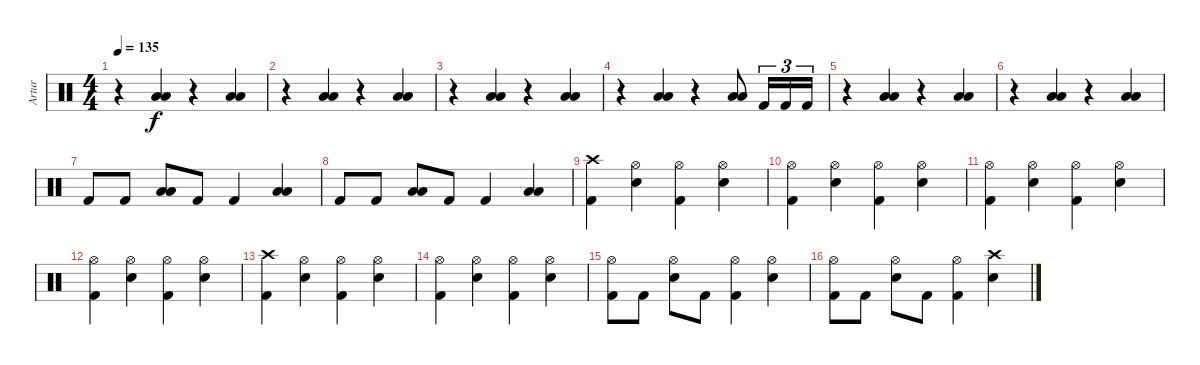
\track ("Artur" "Artur") {instrument percussion}
\staff {score}
\articulation defaults
\ts (4 4)
\tempo 135
\clef neutral
\ks c
r.4{dy f} ("Low Tom (hit)" "Low Floor Tom (hit)").4 r.4 ("Low Tom (hit)" "Low Floor Tom (hit)").4 |
r.4 ("Low Tom (hit)" "Low Floor Tom (hit)").4 r.4 ("Low Tom (hit)" "Low Floor Tom (hit)").4 |
r.4 ("Low Tom (hit)" "Low Floor Tom (hit)").4 r.4 ("Low Tom (hit)" "Low Floor Tom (hit)").4 |
r.4 ("Low Tom (hit)" "Low Floor Tom (hit)").4 r.4 ("Low Tom (hit)" "Low Floor Tom (hit)").8 "Kick (hit) 2".16{tu (3 2)} "Kick (hit) 2".16{tu (3 2)} "Kick (hit) 2".16{tu (3 2)} |
r.4 ("Low Tom (hit)" "Low Floor Tom (hit)").4 r.4 ("Low Tom (hit)" "Low Floor Tom (hit)").4 |
r.4 ("Low Tom (hit)" "Low Floor Tom (hit)").4 r.4 ("Low Tom (hit)" "Low Floor Tom (hit)").4 |
"Kick (hit) 2".8 "Kick (hit) 2".8 ("Low Tom (hit)" "Low Floor Tom (hit)").8 "Kick (hit) 2".8 "Kick (hit) 2".4 ("Low Tom (hit)" "Low Floor Tom (hit)").4 |
"Kick (hit) 2".8 "Kick (hit) 2".8 ("Low Tom (hit)" "Low Floor Tom (hit)").8 "Kick (hit) 2".8 "Kick (hit) 2".4 ("Low Tom (hit)" "Low Floor Tom (hit)").4 |
("Crash high (hit)" "Kick (hit) 2").4 ("Hi-Hat (open)" "Electric Snare (hit)").4 ("Hi-Hat (open)" "Kick (hit) 2").4 ("Hi-Hat (open)" "Electric Snare (hit)").4 |
("Hi-Hat (open)" "Kick (hit) 2").4 ("Hi-Hat (open)" "Electric Snare (hit)").4 ("Hi-Hat (open)" "Kick (hit) 2").4 ("Hi-Hat (open)" "Electric Snare (hit)").4 |
("Hi-Hat (open)" "Kick (hit) 2").4 ("Hi-Hat (open)" "Electric Snare (hit)").4 ("Hi-Hat (open)" "Kick (hit) 2").4 ("Hi-Hat (open)" "Electric Snare (hit)").4 |
("Hi-Hat (open)" "Kick (hit) 2").4 ("Hi-Hat (open)" "Electric Snare (hit)").4 ("Hi-Hat (open)" "Kick (hit) 2").4 ("Hi-Hat (open)" "Electric Snare (hit)").4 |
("Crash high (hit)" "Kick (hit) 2").4 ("Hi-Hat (open)" "Electric Snare (hit)").4 ("Hi-Hat (open)" "Kick (hit) 2").4 ("Hi-Hat (open)" "Electric Snare (hit)").4 |
("Hi-Hat (open)" "Kick (hit) 2").4 ("Hi-Hat (open)" "Electric Snare (hit)").4 ("Hi-Hat (open)" "Kick (hit) 2").4 ("Hi-Hat (open)" "Electric Snare (hit)").4 |
("Hi-Hat (open)" "Kick (hit) 2").8 "Kick (hit) 2".8 ("Hi-Hat (open)" "Electric Snare (hit)").8 "Kick (hit) 2".8 ("Hi-Hat (open)" "Kick (hit) 2").4 ("Hi-Hat (open)" "Electric Snare (hit)").4 |
("Hi-Hat (open)" "Kick (hit) 2").8 "Kick (hit) 2".8 ("Hi-Hat (open)" "Electric Snare (hit)").8 "Kick (hit) 2".8 ("Hi-Hat (open)" "Kick (hit) 2").4 ("Crash high (hit)" "Electric Snare (hit)").4
